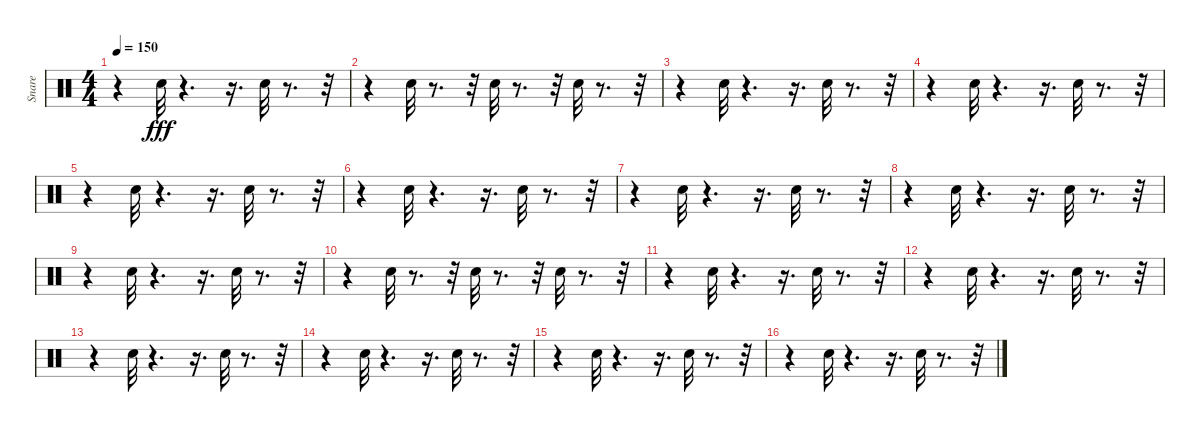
\track ("Snare" "Snare") {instrument percussion}
\staff {score}
\articulation defaults
\ts (4 4)
\tempo 150
\clef neutral
\ks c
r.4{dy fff} "Electric Snare (hit)".32 r.4{d} r.16{d} "Electric Snare (hit)".32 r.8{d} r.32 |
r.4 "Electric Snare (hit)".32 r.8{d} r.32 "Electric Snare (hit)".32 r.8{d} r.32 "Electric Snare (hit)".32 r.8{d} r.32 |
r.4 "Electric Snare (hit)".32 r.4{d} r.16{d} "Electric Snare (hit)".32 r.8{d} r.32 |
r.4 "Electric Snare (hit)".32 r.4{d} r.16{d} "Electric Snare (hit)".32 r.8{d} r.32 |
r.4 "Electric Snare (hit)".32 r.4{d} r.16{d} "Electric Snare (hit)".32 r.8{d} r.32 |
r.4 "Electric Snare (hit)".32 r.4{d} r.16{d} "Electric Snare (hit)".32 r.8{d} r.32 |
r.4 "Electric Snare (hit)".32 r.4{d} r.16{d} "Electric Snare (hit)".32 r.8{d} r.32 |
r.4 "Electric Snare (hit)".32 r.4{d} r.16{d} "Electric Snare (hit)".32 r.8{d} r.32 |
r.4 "Electric Snare (hit)".32 r.4{d} r.16{d} "Electric Snare (hit)".32 r.8{d} r.32 |
r.4 "Electric Snare (hit)".32 r.8{d} r.32 "Electric Snare (hit)".32 r.8{d} r.32 "Electric Snare (hit)".32 r.8{d} r.32 |
r.4 "Electric Snare (hit)".32 r.4{d} r.16{d} "Electric Snare (hit)".32 r.8{d} r.32 |
r.4 "Electric Snare (hit)".32 r.4{d} r.16{d} "Electric Snare (hit)".32 r.8{d} r.32 |
r.4 "Electric Snare (hit)".32 r.4{d} r.16{d} "Electric Snare (hit)".32 r.8{d} r.32 |
r.4 "Electric Snare (hit)".32 r.4{d} r.16{d} "Electric Snare (hit)".32 r.8{d} r.32 |
r.4 "Electric Snare (hit)".32 r.4{d} r.16{d} "Electric Snare (hit)".32 r.8{d} r.32 |
r.4 "Electric Snare (hit)".32 r.4{d} r.16{d} "Electric Snare (hit)".32 r.8{d} r.32
